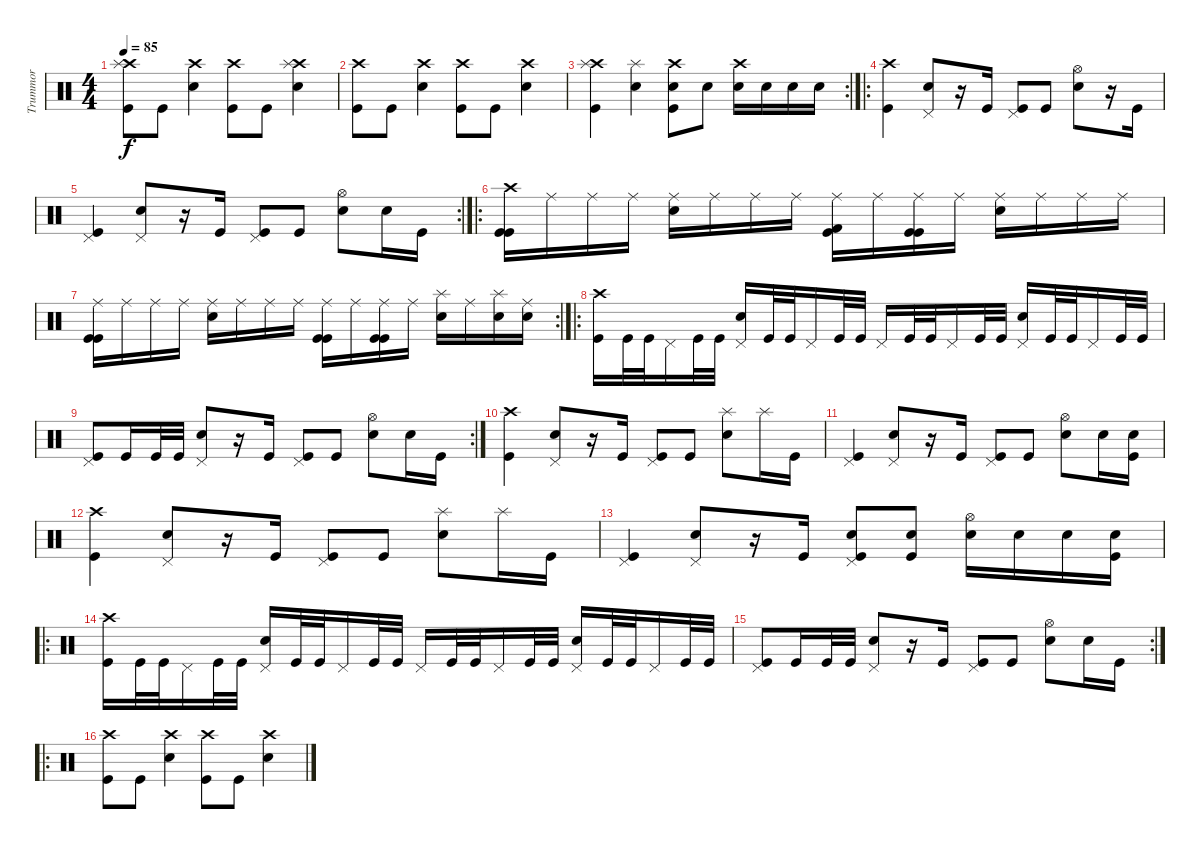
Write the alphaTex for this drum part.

\track ("Trummor" "Trummor") {instrument percussion}
\staff {score}
\articulation defaults
\ts (4 4)
\tempo 85
\clef neutral
\ks c
("Crash high (hit)" "Splash (hit)" "Kick (hit)").8{dy f} "Kick (hit)".8 ("Crash high (hit)" "Snare (hit) 2").4 ("Crash high (hit)" "Kick (hit)").8 "Kick (hit)".8 ("Crash high (hit)" "Splash (hit)" "Snare (hit) 2").4 |
("Crash high (hit)" "Kick (hit)").8 "Kick (hit)".8 ("Crash high (hit)" "Snare (hit) 2").4 ("Crash high (hit)" "Kick (hit)").8 "Kick (hit)".8 ("Crash high (hit)" "Snare (hit) 2").4 |
\rc 2
("Crash high (hit)" "Splash (hit)" "Kick (hit)").4 ("Splash (hit)" "Snare (hit) 2").4 ("Crash high (hit)" "Snare (hit) 2" "Kick (hit)").8 "Snare (hit) 2".8 ("Crash high (hit)" "Snare (hit) 2").16 "Snare (hit) 2".16 "Snare (hit) 2".16 "Snare (hit) 2".16 |
\ro
("Crash high (hit)" "Kick (hit)").4 ("Pedal Hi-Hat (hit)" "Snare (hit) 2").8 r.16 "Kick (hit)".16 ("Pedal Hi-Hat (hit)" "Kick (hit)").8 "Kick (hit)".8 ("Hi-Hat (open)" "Snare (hit) 2").8 r.16 "Kick (hit)".16 |
\rc 2
("Pedal Hi-Hat (hit)" "Kick (hit)").4 ("Pedal Hi-Hat (hit)" "Snare (hit) 2").8 r.16 "Kick (hit)".16 ("Pedal Hi-Hat (hit)" "Kick (hit)").8 "Kick (hit)".8 ("Hi-Hat (open)" "Snare (hit) 2").8 "Snare (hit) 2".16 "Kick (hit)".16 |
\ro
("Crash high (hit)" "Kick (hit)" "Kick (hit)").16 "Ride (middle)".16 "Ride (middle)".16 "Ride (middle)".16 ("Ride (middle)" "Snare (hit) 2").16 "Ride (middle)".16 "Ride (middle)".16 "Ride (middle)".16 ("Ride (middle)" "Kick (hit) 2" "Kick (hit)").16 "Ride (middle)".16 ("Ride (middle)" "Kick (hit)" "Kick (hit)").16 "Ride (middle)".16 ("Ride (middle)" "Snare (hit) 2").16 "Ride (middle)".16 "Ride (middle)".16 "Ride (middle)".16 |
\rc 2
("Ride (middle)" "Kick (hit)" "Kick (hit)").16 "Ride (middle)".16 "Ride (middle)".16 "Ride (middle)".16 ("Ride (middle)" "Snare (hit) 2").16 "Ride (middle)".16 "Ride (middle)".16 "Ride (middle)".16 ("Ride (middle)" "Kick (hit)" "Kick (hit)").16 "Ride (middle)".16 ("Ride (middle)" "Kick (hit)" "Kick (hit)").16 "Ride (middle)".16 ("Splash (hit)" "Snare (hit) 2").16 "Ride (middle)".16 ("Splash (hit)" "Snare (hit) 2").16 ("Ride (middle)" "Snare (hit) 2").16 |
\ro
("Crash high (hit)" "Kick (hit)").16 "Kick (hit)".32 "Kick (hit)".32 "Pedal Hi-Hat (hit)".16 "Kick (hit)".32 "Kick (hit)".32 ("Pedal Hi-Hat (hit)" "Snare (hit) 2").16 "Kick (hit)".32 "Kick (hit)".32 "Pedal Hi-Hat (hit)".16 "Kick (hit)".32 "Kick (hit)".32 "Pedal Hi-Hat (hit)".16 "Kick (hit)".32 "Kick (hit)".32 "Pedal Hi-Hat (hit)".16 "Kick (hit)".32 "Kick (hit)".32 ("Pedal Hi-Hat (hit)" "Snare (hit) 2").16 "Kick (hit)".32 "Kick (hit)".32 "Pedal Hi-Hat (hit)".16 "Kick (hit)".32 "Kick (hit)".32 |
\rc 2
("Pedal Hi-Hat (hit)" "Kick (hit)").8 "Kick (hit)".16 "Kick (hit)".32 "Kick (hit)".32 ("Pedal Hi-Hat (hit)" "Snare (hit) 2").8 r.16 "Kick (hit)".16 ("Pedal Hi-Hat (hit)" "Kick (hit)").8 "Kick (hit)".8 ("Hi-Hat (open)" "Snare (hit) 2").8 "Snare (hit) 2".16 "Kick (hit)".16 |
("Crash high (hit)" "Kick (hit)").4 ("Pedal Hi-Hat (hit)" "Snare (hit) 2").8 r.16 "Kick (hit)".16 ("Pedal Hi-Hat (hit)" "Kick (hit)").8 "Kick (hit)".8 ("Splash (hit)" "Snare (hit) 2").8 "Splash (hit)".16 "Kick (hit)".16 |
("Pedal Hi-Hat (hit)" "Kick (hit)").4 ("Pedal Hi-Hat (hit)" "Snare (hit) 2").8 r.16 "Kick (hit)".16 ("Pedal Hi-Hat (hit)" "Kick (hit)").8 "Kick (hit)".8 ("Hi-Hat (open)" "Snare (hit) 2").8 "Snare (hit) 2".16 ("Snare (hit) 2" "Kick (hit)").16 |
("Crash high (hit)" "Kick (hit)").4 ("Pedal Hi-Hat (hit)" "Snare (hit) 2").8 r.16 "Kick (hit)".16 ("Pedal Hi-Hat (hit)" "Kick (hit)").8 "Kick (hit)".8 ("Splash (hit)" "Snare (hit) 2").8 "Splash (hit)".16 "Kick (hit)".16 |
("Pedal Hi-Hat (hit)" "Kick (hit)").4 ("Pedal Hi-Hat (hit)" "Snare (hit) 2").8 r.16 "Kick (hit)".16 ("Pedal Hi-Hat (hit)" "Snare (hit) 2" "Kick (hit)").8 ("Snare (hit) 2" "Kick (hit)").8 ("Hi-Hat (open)" "Snare (hit) 2").16 "Snare (hit) 2".16 "Snare (hit) 2".16 ("Snare (hit) 2" "Kick (hit)").16 |
\ro
("Crash high (hit)" "Kick (hit)").16 "Kick (hit)".32 "Kick (hit)".32 "Pedal Hi-Hat (hit)".16 "Kick (hit)".32 "Kick (hit)".32 ("Pedal Hi-Hat (hit)" "Snare (hit) 2").16 "Kick (hit)".32 "Kick (hit)".32 "Pedal Hi-Hat (hit)".16 "Kick (hit)".32 "Kick (hit)".32 "Pedal Hi-Hat (hit)".16 "Kick (hit)".32 "Kick (hit)".32 "Pedal Hi-Hat (hit)".16 "Kick (hit)".32 "Kick (hit)".32 ("Pedal Hi-Hat (hit)" "Snare (hit) 2").16 "Kick (hit)".32 "Kick (hit)".32 "Pedal Hi-Hat (hit)".16 "Kick (hit)".32 "Kick (hit)".32 |
\rc 2
("Pedal Hi-Hat (hit)" "Kick (hit)").8 "Kick (hit)".16 "Kick (hit)".32 "Kick (hit)".32 ("Pedal Hi-Hat (hit)" "Snare (hit) 2").8 r.16 "Kick (hit)".16 ("Pedal Hi-Hat (hit)" "Kick (hit)").8 "Kick (hit)".8 ("Hi-Hat (open)" "Snare (hit) 2").8 "Snare (hit) 2".16 "Kick (hit)".16 |
\ro
("Crash high (hit)" "Kick (hit)").8 "Kick (hit)".8 ("Crash high (hit)" "Snare (hit) 2").4 ("Crash high (hit)" "Kick (hit)").8 "Kick (hit)".8 ("Crash high (hit)" "Snare (hit) 2").4
